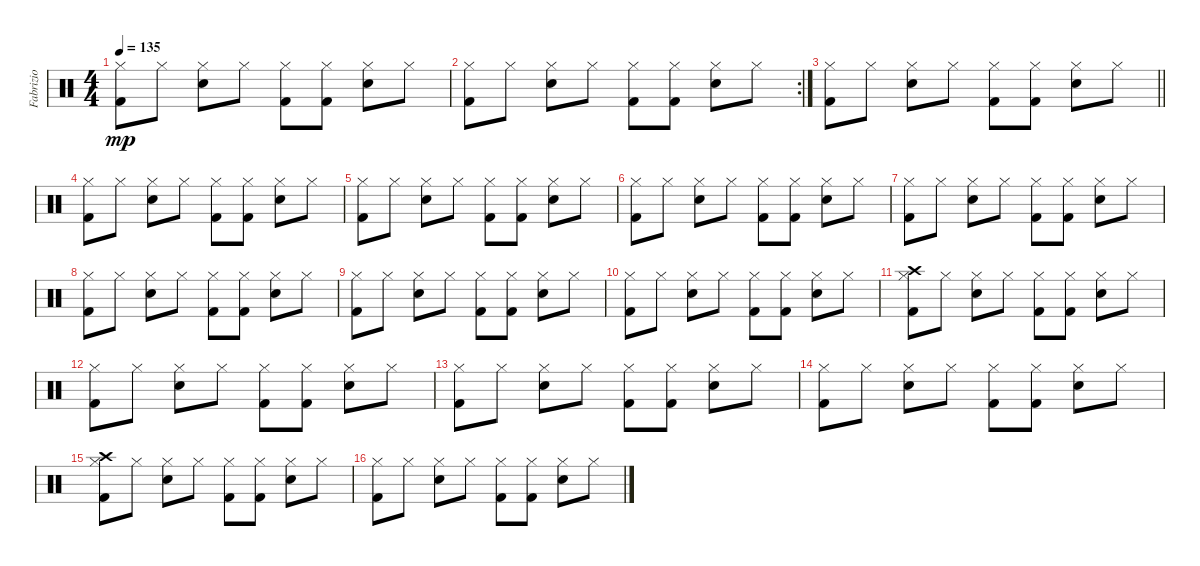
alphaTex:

\track ("Fabrizio" "Fabrizio") {instrument percussion}
\staff {score}
\articulation defaults
\ts (4 4)
\tempo 135
\clef neutral
\ks c
("Hi-Hat (closed)" "Kick (hit) 2").8{dy mp} "Hi-Hat (closed)".8 ("Hi-Hat (closed)" "Electric Snare (hit)").8 "Hi-Hat (closed)".8 ("Hi-Hat (closed)" "Kick (hit) 2").8 ("Hi-Hat (closed)" "Kick (hit) 2").8 ("Hi-Hat (closed)" "Electric Snare (hit)").8 "Hi-Hat (closed)".8 |
\rc 2
("Hi-Hat (closed)" "Kick (hit) 2").8 "Hi-Hat (closed)".8 ("Hi-Hat (closed)" "Electric Snare (hit)").8 "Hi-Hat (closed)".8 ("Hi-Hat (closed)" "Kick (hit) 2").8 ("Hi-Hat (closed)" "Kick (hit) 2").8 ("Hi-Hat (closed)" "Electric Snare (hit)").8 "Hi-Hat (closed)".8 |
\barLineRight lightlight
("Hi-Hat (closed)" "Kick (hit) 2").8 "Hi-Hat (closed)".8 ("Hi-Hat (closed)" "Electric Snare (hit)").8 "Hi-Hat (closed)".8 ("Hi-Hat (closed)" "Kick (hit) 2").8 ("Hi-Hat (closed)" "Kick (hit) 2").8 ("Hi-Hat (closed)" "Electric Snare (hit)").8 "Hi-Hat (closed)".8 |
("Hi-Hat (closed)" "Kick (hit) 2").8 "Hi-Hat (closed)".8 ("Hi-Hat (closed)" "Electric Snare (hit)").8 "Hi-Hat (closed)".8 ("Hi-Hat (closed)" "Kick (hit) 2").8 ("Hi-Hat (closed)" "Kick (hit) 2").8 ("Hi-Hat (closed)" "Electric Snare (hit)").8 "Hi-Hat (closed)".8 |
("Hi-Hat (closed)" "Kick (hit) 2").8 "Hi-Hat (closed)".8 ("Hi-Hat (closed)" "Electric Snare (hit)").8 "Hi-Hat (closed)".8 ("Hi-Hat (closed)" "Kick (hit) 2").8 ("Hi-Hat (closed)" "Kick (hit) 2").8 ("Hi-Hat (closed)" "Electric Snare (hit)").8 "Hi-Hat (closed)".8 |
("Hi-Hat (closed)" "Kick (hit) 2").8 "Hi-Hat (closed)".8 ("Hi-Hat (closed)" "Electric Snare (hit)").8 "Hi-Hat (closed)".8 ("Hi-Hat (closed)" "Kick (hit) 2").8 ("Hi-Hat (closed)" "Kick (hit) 2").8 ("Hi-Hat (closed)" "Electric Snare (hit)").8 "Hi-Hat (closed)".8 |
("Hi-Hat (closed)" "Kick (hit) 2").8 "Hi-Hat (closed)".8 ("Hi-Hat (closed)" "Electric Snare (hit)").8 "Hi-Hat (closed)".8 ("Hi-Hat (closed)" "Kick (hit) 2").8 ("Hi-Hat (closed)" "Kick (hit) 2").8 ("Hi-Hat (closed)" "Electric Snare (hit)").8 "Hi-Hat (closed)".8 |
("Hi-Hat (closed)" "Kick (hit) 2").8 "Hi-Hat (closed)".8 ("Hi-Hat (closed)" "Electric Snare (hit)").8 "Hi-Hat (closed)".8 ("Hi-Hat (closed)" "Kick (hit) 2").8 ("Hi-Hat (closed)" "Kick (hit) 2").8 ("Hi-Hat (closed)" "Electric Snare (hit)").8 "Hi-Hat (closed)".8 |
("Hi-Hat (closed)" "Kick (hit) 2").8 "Hi-Hat (closed)".8 ("Hi-Hat (closed)" "Electric Snare (hit)").8 "Hi-Hat (closed)".8 ("Hi-Hat (closed)" "Kick (hit) 2").8 ("Hi-Hat (closed)" "Kick (hit) 2").8 ("Hi-Hat (closed)" "Electric Snare (hit)").8 "Hi-Hat (closed)".8 |
("Hi-Hat (closed)" "Kick (hit) 2").8 "Hi-Hat (closed)".8 ("Hi-Hat (closed)" "Electric Snare (hit)").8 "Hi-Hat (closed)".8 ("Hi-Hat (closed)" "Kick (hit) 2").8 ("Hi-Hat (closed)" "Kick (hit) 2").8 ("Hi-Hat (closed)" "Electric Snare (hit)").8 "Hi-Hat (closed)".8 |
("Crash high (hit)" "Hi-Hat (closed)" "Kick (hit) 2").8 "Hi-Hat (closed)".8 ("Hi-Hat (closed)" "Electric Snare (hit)").8 "Hi-Hat (closed)".8 ("Hi-Hat (closed)" "Kick (hit) 2").8 ("Hi-Hat (closed)" "Kick (hit) 2").8 ("Hi-Hat (closed)" "Electric Snare (hit)").8 "Hi-Hat (closed)".8 |
("Hi-Hat (closed)" "Kick (hit) 2").8 "Hi-Hat (closed)".8 ("Hi-Hat (closed)" "Electric Snare (hit)").8 "Hi-Hat (closed)".8 ("Hi-Hat (closed)" "Kick (hit) 2").8 ("Hi-Hat (closed)" "Kick (hit) 2").8 ("Hi-Hat (closed)" "Electric Snare (hit)").8 "Hi-Hat (closed)".8 |
("Hi-Hat (closed)" "Kick (hit) 2").8 "Hi-Hat (closed)".8 ("Hi-Hat (closed)" "Electric Snare (hit)").8 "Hi-Hat (closed)".8 ("Hi-Hat (closed)" "Kick (hit) 2").8 ("Hi-Hat (closed)" "Kick (hit) 2").8 ("Hi-Hat (closed)" "Electric Snare (hit)").8 "Hi-Hat (closed)".8 |
("Hi-Hat (closed)" "Kick (hit) 2").8 "Hi-Hat (closed)".8 ("Hi-Hat (closed)" "Electric Snare (hit)").8 "Hi-Hat (closed)".8 ("Hi-Hat (closed)" "Kick (hit) 2").8 ("Hi-Hat (closed)" "Kick (hit) 2").8 ("Hi-Hat (closed)" "Electric Snare (hit)").8 "Hi-Hat (closed)".8 |
("Crash high (hit)" "Hi-Hat (closed)" "Kick (hit) 2").8 "Hi-Hat (closed)".8 ("Hi-Hat (closed)" "Electric Snare (hit)").8 "Hi-Hat (closed)".8 ("Hi-Hat (closed)" "Kick (hit) 2").8 ("Hi-Hat (closed)" "Kick (hit) 2").8 ("Hi-Hat (closed)" "Electric Snare (hit)").8 "Hi-Hat (closed)".8 |
("Hi-Hat (closed)" "Kick (hit) 2").8 "Hi-Hat (closed)".8 ("Hi-Hat (closed)" "Electric Snare (hit)").8 "Hi-Hat (closed)".8 ("Hi-Hat (closed)" "Kick (hit) 2").8 ("Hi-Hat (closed)" "Kick (hit) 2").8 ("Hi-Hat (closed)" "Electric Snare (hit)").8 "Hi-Hat (closed)".8
